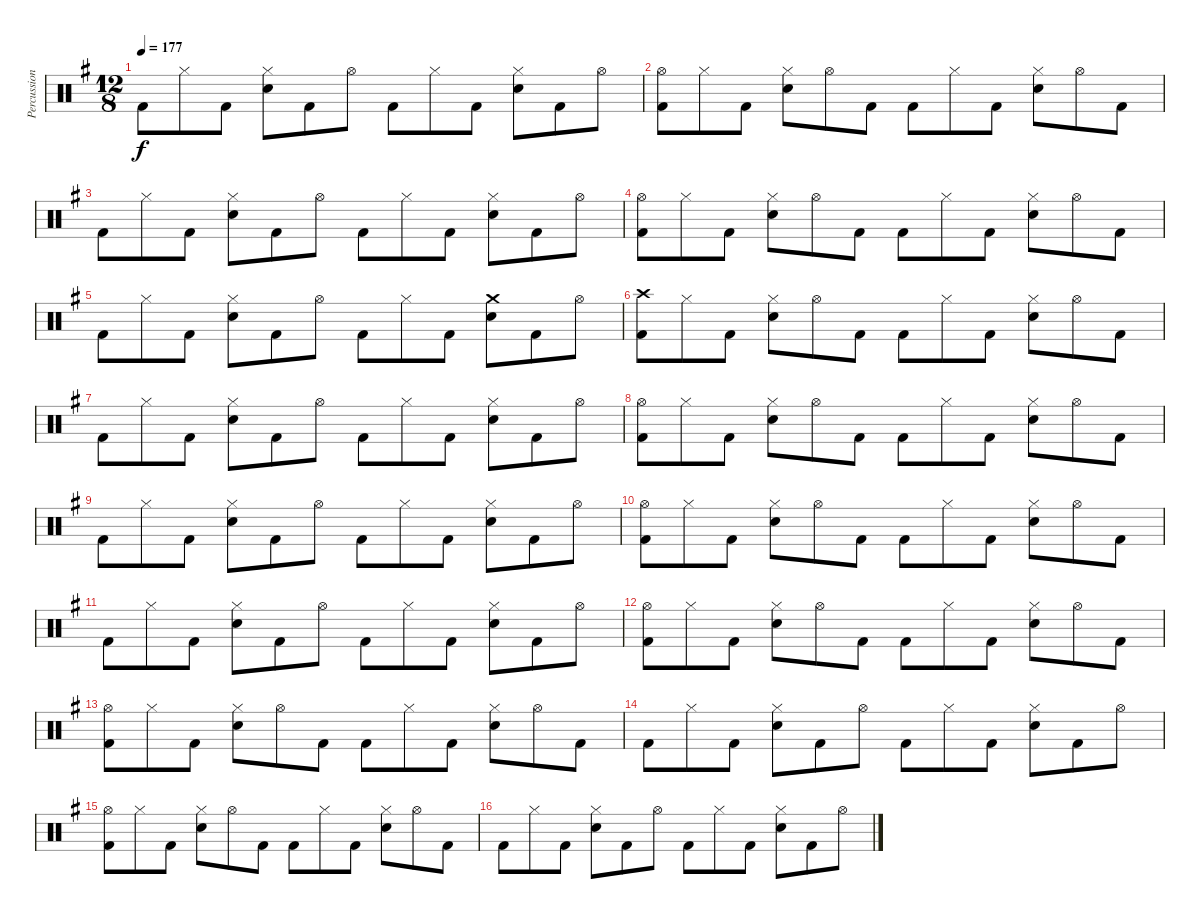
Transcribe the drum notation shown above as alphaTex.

\track ("Percussion" "Percussion") {instrument percussion}
\staff {score}
\articulation defaults
\ts (12 8)
\tempo 177
\clef neutral
\ks g "Kick (hit) 2".8{dy f} "Hi-Hat (closed)".8 "Kick (hit) 2".8
("Hi-Hat (closed)" "Snare (hit) 2").8 "Kick (hit) 2".8 "Hi-Hat (open)".8 "Kick (hit) 2".8 "Hi-Hat (closed)".8 "Kick (hit) 2".8 ("Hi-Hat (closed)" "Snare (hit) 2").8 "Kick (hit) 2".8 "Hi-Hat (open)".8 |
("Hi-Hat (open)" "Kick (hit) 2").8 "Hi-Hat (closed)".8 "Kick (hit) 2".8 ("Hi-Hat (closed)" "Snare (hit) 2").8 "Hi-Hat (open)".8 "Kick (hit) 2".8 "Kick (hit) 2".8 "Hi-Hat (closed)".8 "Kick (hit) 2".8 ("Hi-Hat (closed)" "Snare (hit) 2").8 "Hi-Hat (open)".8 "Kick (hit) 2".8 |
"Kick (hit) 2".8 "Hi-Hat (closed)".8 "Kick (hit) 2".8 ("Hi-Hat (closed)" "Snare (hit) 2").8 "Kick (hit) 2".8 "Hi-Hat (open)".8 "Kick (hit) 2".8 "Hi-Hat (closed)".8 "Kick (hit) 2".8 ("Hi-Hat (closed)" "Snare (hit) 2").8 "Kick (hit) 2".8 "Hi-Hat (open)".8 |
("Hi-Hat (open)" "Kick (hit) 2").8 "Hi-Hat (closed)".8 "Kick (hit) 2".8 ("Hi-Hat (closed)" "Snare (hit) 2").8 "Hi-Hat (open)".8 "Kick (hit) 2".8 "Kick (hit) 2".8 "Hi-Hat (closed)".8 "Kick (hit) 2".8 ("Hi-Hat (closed)" "Snare (hit) 2").8 "Hi-Hat (open)".8 "Kick (hit) 2".8 |
"Kick (hit) 2".8 "Hi-Hat (closed)".8 "Kick (hit) 2".8 ("Hi-Hat (closed)" "Snare (hit) 2").8 "Kick (hit) 2".8 "Hi-Hat (open)".8 "Kick (hit) 2".8 "Hi-Hat (closed)".8 "Kick (hit) 2".8 ("Crash medium (hit)" "Snare (hit) 2").8 "Kick (hit) 2".8 "Hi-Hat (open)".8 |
("Crash high (hit)" "Kick (hit) 2").8 "Hi-Hat (closed)".8 "Kick (hit) 2".8 ("Hi-Hat (closed)" "Snare (hit) 2").8 "Hi-Hat (open)".8 "Kick (hit) 2".8 "Kick (hit) 2".8 "Hi-Hat (closed)".8 "Kick (hit) 2".8 ("Hi-Hat (closed)" "Snare (hit) 2").8 "Hi-Hat (open)".8 "Kick (hit) 2".8 |
"Kick (hit) 2".8 "Hi-Hat (closed)".8 "Kick (hit) 2".8 ("Hi-Hat (closed)" "Snare (hit) 2").8 "Kick (hit) 2".8 "Hi-Hat (open)".8 "Kick (hit) 2".8 "Hi-Hat (closed)".8 "Kick (hit) 2".8 ("Hi-Hat (closed)" "Snare (hit) 2").8 "Kick (hit) 2".8 "Hi-Hat (open)".8 |
("Hi-Hat (open)" "Kick (hit) 2").8 "Hi-Hat (closed)".8 "Kick (hit) 2".8 ("Hi-Hat (closed)" "Snare (hit) 2").8 "Hi-Hat (open)".8 "Kick (hit) 2".8 "Kick (hit) 2".8 "Hi-Hat (closed)".8 "Kick (hit) 2".8 ("Hi-Hat (closed)" "Snare (hit) 2").8 "Hi-Hat (open)".8 "Kick (hit) 2".8 |
"Kick (hit) 2".8 "Hi-Hat (closed)".8 "Kick (hit) 2".8 ("Hi-Hat (closed)" "Snare (hit) 2").8 "Kick (hit) 2".8 "Hi-Hat (open)".8 "Kick (hit) 2".8 "Hi-Hat (closed)".8 "Kick (hit) 2".8 ("Hi-Hat (closed)" "Snare (hit) 2").8 "Kick (hit) 2".8 "Hi-Hat (open)".8 |
("Hi-Hat (open)" "Kick (hit) 2").8 "Hi-Hat (closed)".8 "Kick (hit) 2".8 ("Hi-Hat (closed)" "Snare (hit) 2").8 "Hi-Hat (open)".8 "Kick (hit) 2".8 "Kick (hit) 2".8 "Hi-Hat (closed)".8 "Kick (hit) 2".8 ("Hi-Hat (closed)" "Snare (hit) 2").8 "Hi-Hat (open)".8 "Kick (hit) 2".8 |
"Kick (hit) 2".8 "Hi-Hat (closed)".8 "Kick (hit) 2".8 ("Hi-Hat (closed)" "Snare (hit) 2").8 "Kick (hit) 2".8 "Hi-Hat (open)".8 "Kick (hit) 2".8 "Hi-Hat (closed)".8 "Kick (hit) 2".8 ("Hi-Hat (closed)" "Snare (hit) 2").8 "Kick (hit) 2".8 "Hi-Hat (open)".8 |
("Hi-Hat (open)" "Kick (hit) 2").8 "Hi-Hat (closed)".8 "Kick (hit) 2".8 ("Hi-Hat (closed)" "Snare (hit) 2").8 "Hi-Hat (open)".8 "Kick (hit) 2".8 "Kick (hit) 2".8 "Hi-Hat (closed)".8 "Kick (hit) 2".8 ("Hi-Hat (closed)" "Snare (hit) 2").8 "Hi-Hat (open)".8 "Kick (hit) 2".8 |
("Hi-Hat (open)" "Kick (hit) 2").8 "Hi-Hat (closed)".8 "Kick (hit) 2".8 ("Hi-Hat (closed)" "Snare (hit) 2").8 "Hi-Hat (open)".8 "Kick (hit) 2".8 "Kick (hit) 2".8 "Hi-Hat (closed)".8 "Kick (hit) 2".8 ("Hi-Hat (closed)" "Snare (hit) 2").8 "Hi-Hat (open)".8 "Kick (hit) 2".8 |
"Kick (hit) 2".8 "Hi-Hat (closed)".8 "Kick (hit) 2".8 ("Hi-Hat (closed)" "Snare (hit) 2").8 "Kick (hit) 2".8 "Hi-Hat (open)".8 "Kick (hit) 2".8 "Hi-Hat (closed)".8 "Kick (hit) 2".8 ("Hi-Hat (closed)" "Snare (hit) 2").8 "Kick (hit) 2".8 "Hi-Hat (open)".8 |
("Hi-Hat (open)" "Kick (hit) 2").8 "Hi-Hat (closed)".8 "Kick (hit) 2".8 ("Hi-Hat (closed)" "Snare (hit) 2").8 "Hi-Hat (open)".8 "Kick (hit) 2".8 "Kick (hit) 2".8 "Hi-Hat (closed)".8 "Kick (hit) 2".8 ("Hi-Hat (closed)" "Snare (hit) 2").8 "Hi-Hat (open)".8 "Kick (hit) 2".8 |
"Kick (hit) 2".8 "Hi-Hat (closed)".8 "Kick (hit) 2".8 ("Hi-Hat (closed)" "Snare (hit) 2").8 "Kick (hit) 2".8 "Hi-Hat (open)".8 "Kick (hit) 2".8 "Hi-Hat (closed)".8 "Kick (hit) 2".8 ("Hi-Hat (closed)" "Snare (hit) 2").8 "Kick (hit) 2".8 "Hi-Hat (open)".8
